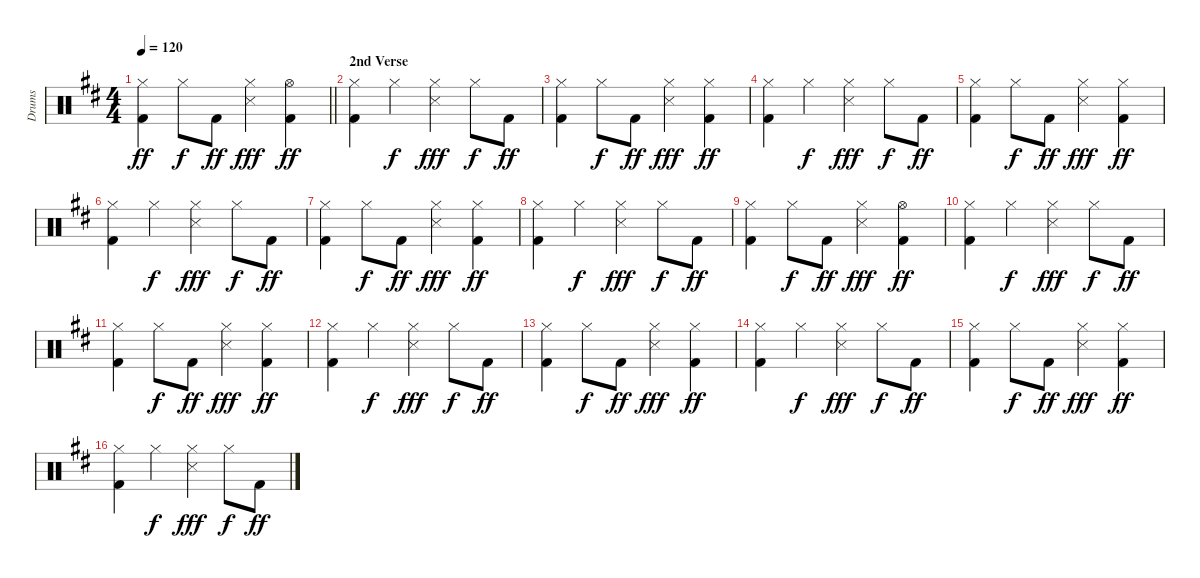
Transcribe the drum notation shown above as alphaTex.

\track ("Drums" "Drums") {instrument percussion}
\staff {score}
\articulation defaults
\ts (4 4)
\tempo 120
\clef neutral
\barLineRight lightlight
\ks d
("Kick (hit) 2" "Hi-Hat (closed)").4{dy ff} "Hi-Hat (closed)".8{dy f} "Kick (hit) 2".8{dy ff} ("Snare (side stick) 3" "Hi-Hat (closed)").4{dy fff} ("Kick (hit) 2" "Hi-Hat (open)").4{dy ff} |
\section ("" "2nd Verse")
("Kick (hit) 2" "Hi-Hat (closed)").4 "Hi-Hat (closed)".4{dy f} ("Snare (side stick) 3" "Hi-Hat (closed)").4{dy fff} "Hi-Hat (closed)".8{dy f} "Kick (hit) 2".8{dy ff} |
("Kick (hit) 2" "Hi-Hat (closed)").4 "Hi-Hat (closed)".8{dy f} "Kick (hit) 2".8{dy ff} ("Snare (side stick) 3" "Hi-Hat (closed)").4{dy fff} ("Kick (hit) 2" "Hi-Hat (closed)").4{dy ff} |
("Kick (hit) 2" "Hi-Hat (closed)").4 "Hi-Hat (closed)".4{dy f} ("Snare (side stick) 3" "Hi-Hat (closed)").4{dy fff} "Hi-Hat (closed)".8{dy f} "Kick (hit) 2".8{dy ff} |
("Kick (hit) 2" "Hi-Hat (closed)").4 "Hi-Hat (closed)".8{dy f} "Kick (hit) 2".8{dy ff} ("Snare (side stick) 3" "Hi-Hat (closed)").4{dy fff} ("Kick (hit) 2" "Hi-Hat (closed)").4{dy ff} |
("Kick (hit) 2" "Hi-Hat (closed)").4 "Hi-Hat (closed)".4{dy f} ("Snare (side stick) 3" "Hi-Hat (closed)").4{dy fff} "Hi-Hat (closed)".8{dy f} "Kick (hit) 2".8{dy ff} |
("Kick (hit) 2" "Hi-Hat (closed)").4 "Hi-Hat (closed)".8{dy f} "Kick (hit) 2".8{dy ff} ("Snare (side stick) 3" "Hi-Hat (closed)").4{dy fff} ("Kick (hit) 2" "Hi-Hat (closed)").4{dy ff} |
("Kick (hit) 2" "Hi-Hat (closed)").4 "Hi-Hat (closed)".4{dy f} ("Snare (side stick) 3" "Hi-Hat (closed)").4{dy fff} "Hi-Hat (closed)".8{dy f} "Kick (hit) 2".8{dy ff} |
("Kick (hit) 2" "Hi-Hat (closed)").4 "Hi-Hat (closed)".8{dy f} "Kick (hit) 2".8{dy ff} ("Snare (side stick) 3" "Hi-Hat (closed)").4{dy fff} ("Kick (hit) 2" "Hi-Hat (open)").4{dy ff} |
("Kick (hit) 2" "Hi-Hat (closed)").4 "Hi-Hat (closed)".4{dy f} ("Snare (side stick) 3" "Hi-Hat (closed)").4{dy fff} "Hi-Hat (closed)".8{dy f} "Kick (hit) 2".8{dy ff} |
("Kick (hit) 2" "Hi-Hat (closed)").4 "Hi-Hat (closed)".8{dy f} "Kick (hit) 2".8{dy ff} ("Snare (side stick) 3" "Hi-Hat (closed)").4{dy fff} ("Kick (hit) 2" "Hi-Hat (closed)").4{dy ff} |
("Kick (hit) 2" "Hi-Hat (closed)").4 "Hi-Hat (closed)".4{dy f} ("Snare (side stick) 3" "Hi-Hat (closed)").4{dy fff} "Hi-Hat (closed)".8{dy f} "Kick (hit) 2".8{dy ff} |
("Kick (hit) 2" "Hi-Hat (closed)").4 "Hi-Hat (closed)".8{dy f} "Kick (hit) 2".8{dy ff} ("Snare (side stick) 3" "Hi-Hat (closed)").4{dy fff} ("Kick (hit) 2" "Hi-Hat (closed)").4{dy ff} |
("Kick (hit) 2" "Hi-Hat (closed)").4 "Hi-Hat (closed)".4{dy f} ("Snare (side stick) 3" "Hi-Hat (closed)").4{dy fff} "Hi-Hat (closed)".8{dy f} "Kick (hit) 2".8{dy ff} |
("Kick (hit) 2" "Hi-Hat (closed)").4 "Hi-Hat (closed)".8{dy f} "Kick (hit) 2".8{dy ff} ("Snare (side stick) 3" "Hi-Hat (closed)").4{dy fff} ("Kick (hit) 2" "Hi-Hat (closed)").4{dy ff} |
("Kick (hit) 2" "Hi-Hat (closed)").4 "Hi-Hat (closed)".4{dy f} ("Snare (side stick) 3" "Hi-Hat (closed)").4{dy fff} "Hi-Hat (closed)".8{dy f} "Kick (hit) 2".8{dy ff}
